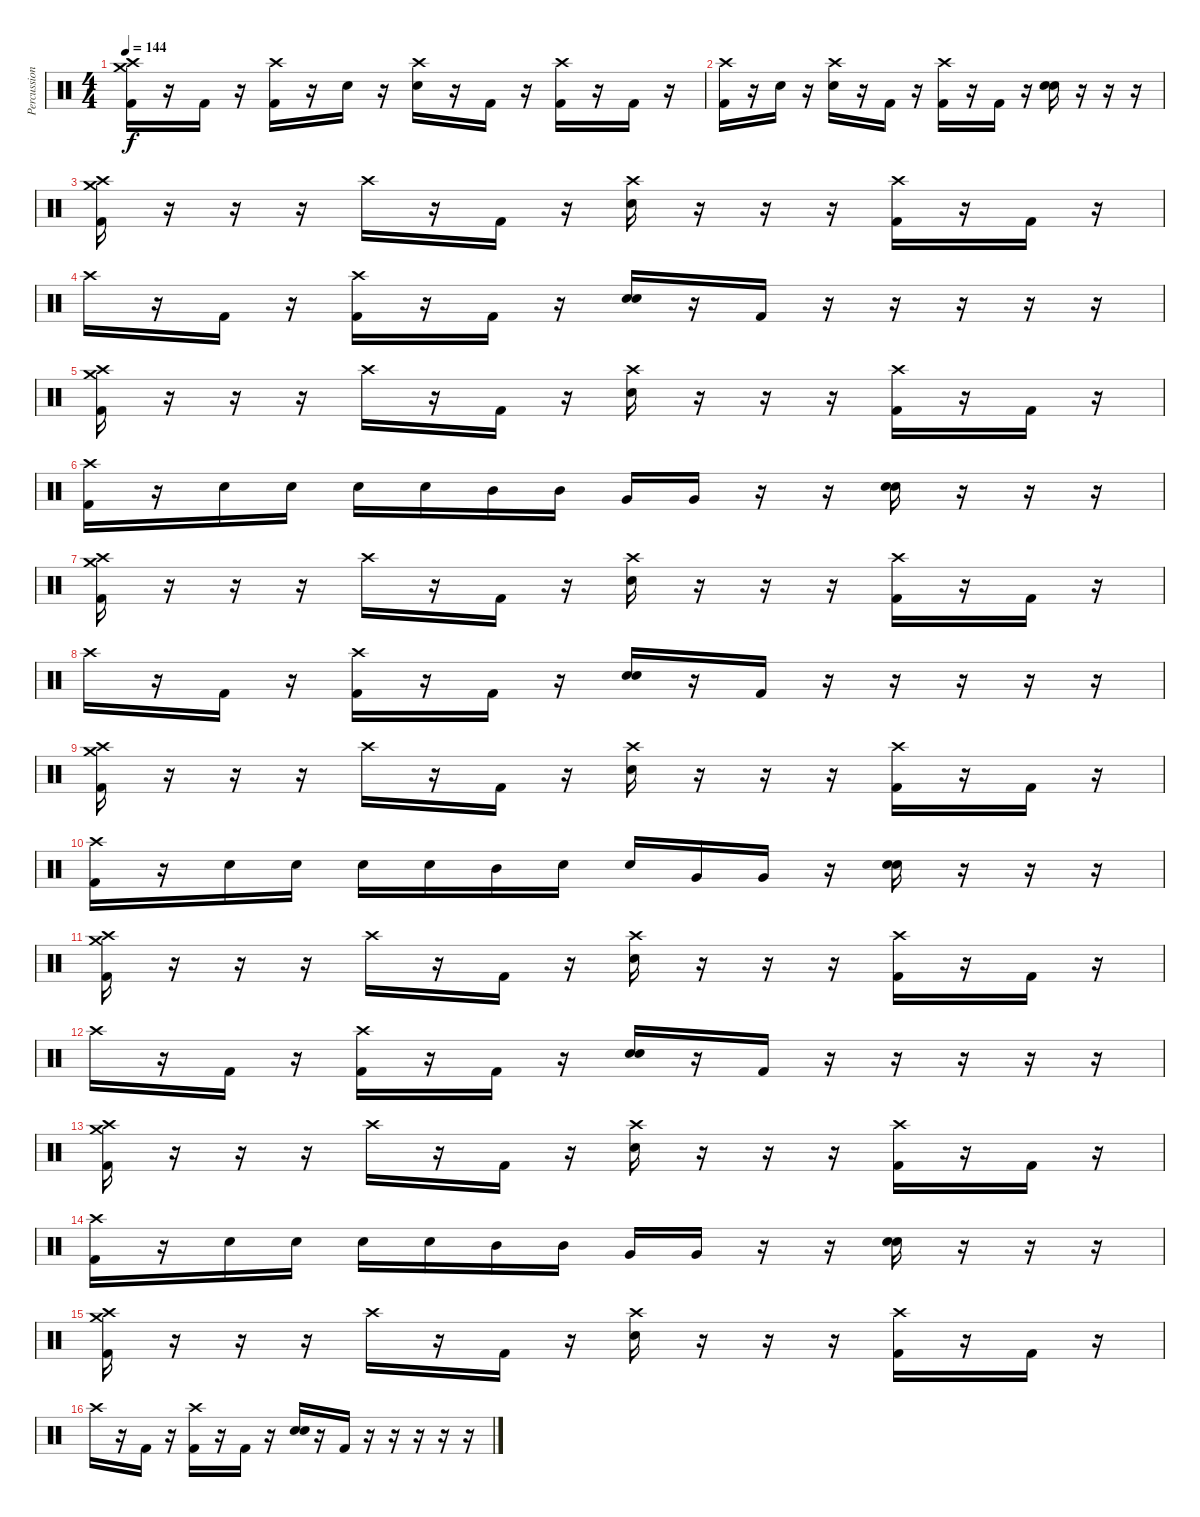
\track ("Percussion" "Percussion") {instrument percussion}
\staff {score}
\articulation defaults
\ts (4 4)
\tempo 144
\clef neutral
\ks c
("Crash medium (hit)" "Crash high (hit)" "Kick (hit) 2").16{dy f} r.16 "Kick (hit) 2".16 r.16 ("Crash high (hit)" "Kick (hit) 2").16 r.16 "Electric Snare (hit)".16 r.16 ("Crash high (hit)" "Electric Snare (hit)").16 r.16 "Kick (hit) 2".16 r.16 ("Crash high (hit)" "Kick (hit) 2").16 r.16 "Kick (hit) 2".16 r.16 |
("Crash high (hit)" "Kick (hit) 2").16 r.16 "Electric Snare (hit)".16 r.16 ("Crash high (hit)" "Electric Snare (hit)").16 r.16 "Kick (hit) 2".16 r.16 ("Crash high (hit)" "Kick (hit) 2").16 r.16 "Kick (hit) 2".16 r.16 ("Electric Snare (hit)" "Electric Snare (hit)").16{bd 480} r.16 r.16 r.16 |
("Crash medium (hit)" "Crash high (hit)" "Kick (hit) 2").16 r.16 r.16 r.16 "Crash high (hit)".16 r.16 "Kick (hit) 2".16 r.16 ("Crash high (hit)" "Electric Snare (hit)").16 r.16 r.16 r.16 ("Crash high (hit)" "Kick (hit) 2").16 r.16 "Kick (hit) 2".16 r.16 |
"Crash high (hit)".16 r.16 "Kick (hit) 2".16 r.16 ("Crash high (hit)" "Kick (hit) 2").16 r.16 "Kick (hit) 2".16 r.16 ("Electric Snare (hit)" "Electric Snare (hit)").16{bd 480} r.16 "Kick (hit) 2".16 r.16 r.16 r.16 r.16 r.16 |
("Crash medium (hit)" "Crash high (hit)" "Kick (hit) 2").16 r.16 r.16 r.16 "Crash high (hit)".16 r.16 "Kick (hit) 2".16 r.16 ("Crash high (hit)" "Electric Snare (hit)").16 r.16 r.16 r.16 ("Crash high (hit)" "Kick (hit) 2").16 r.16 "Kick (hit) 2".16 r.16 |
("Crash high (hit)" "Kick (hit) 2").16 r.16 "Electric Snare (hit)".16 "Electric Snare (hit)".16 "Electric Snare (hit)".16 "Electric Snare (hit)".16 "Mid Tom (hit)".16 "Mid Tom (hit)".16 "Very Low Tom (hit)".16 "Very Low Tom (hit)".16 r.16 r.16 ("Electric Snare (hit)" "Electric Snare (hit)").16{bd 480} r.16 r.16 r.16 |
("Crash medium (hit)" "Crash high (hit)" "Kick (hit) 2").16 r.16 r.16 r.16 "Crash high (hit)".16 r.16 "Kick (hit) 2".16 r.16 ("Crash high (hit)" "Electric Snare (hit)").16 r.16 r.16 r.16 ("Crash high (hit)" "Kick (hit) 2").16 r.16 "Kick (hit) 2".16 r.16 |
"Crash high (hit)".16 r.16 "Kick (hit) 2".16 r.16 ("Crash high (hit)" "Kick (hit) 2").16 r.16 "Kick (hit) 2".16 r.16 ("Electric Snare (hit)" "Electric Snare (hit)").16{bd 480} r.16 "Kick (hit) 2".16 r.16 r.16 r.16 r.16 r.16 |
("Crash medium (hit)" "Crash high (hit)" "Kick (hit) 2").16 r.16 r.16 r.16 "Crash high (hit)".16 r.16 "Kick (hit) 2".16 r.16 ("Crash high (hit)" "Electric Snare (hit)").16 r.16 r.16 r.16 ("Crash high (hit)" "Kick (hit) 2").16 r.16 "Kick (hit) 2".16 r.16 |
("Crash high (hit)" "Kick (hit) 2").16 r.16 "Electric Snare (hit)".16 "Electric Snare (hit)".16 "Electric Snare (hit)".16 "Electric Snare (hit)".16 "Mid Tom (hit)".16 "Electric Snare (hit)".16 "Electric Snare (hit)".16 "Very Low Tom (hit)".16 "Very Low Tom (hit)".16 r.16 ("Electric Snare (hit)" "Electric Snare (hit)").16{bd 480} r.16 r.16 r.16 |
("Crash medium (hit)" "Crash high (hit)" "Kick (hit) 2").16 r.16 r.16 r.16 "Crash high (hit)".16 r.16 "Kick (hit) 2".16 r.16 ("Crash high (hit)" "Electric Snare (hit)").16 r.16 r.16 r.16 ("Crash high (hit)" "Kick (hit) 2").16 r.16 "Kick (hit) 2".16 r.16 |
"Crash high (hit)".16 r.16 "Kick (hit) 2".16 r.16 ("Crash high (hit)" "Kick (hit) 2").16 r.16 "Kick (hit) 2".16 r.16 ("Electric Snare (hit)" "Electric Snare (hit)").16{bd 480} r.16 "Kick (hit) 2".16 r.16 r.16 r.16 r.16 r.16 |
("Crash medium (hit)" "Crash high (hit)" "Kick (hit) 2").16 r.16 r.16 r.16 "Crash high (hit)".16 r.16 "Kick (hit) 2".16 r.16 ("Crash high (hit)" "Electric Snare (hit)").16 r.16 r.16 r.16 ("Crash high (hit)" "Kick (hit) 2").16 r.16 "Kick (hit) 2".16 r.16 |
("Crash high (hit)" "Kick (hit) 2").16 r.16 "Electric Snare (hit)".16 "Electric Snare (hit)".16 "Electric Snare (hit)".16 "Electric Snare (hit)".16 "Mid Tom (hit)".16 "Mid Tom (hit)".16 "Very Low Tom (hit)".16 "Very Low Tom (hit)".16 r.16 r.16 ("Electric Snare (hit)" "Electric Snare (hit)").16{bd 480} r.16 r.16 r.16 |
("Crash medium (hit)" "Crash high (hit)" "Kick (hit) 2").16 r.16 r.16 r.16 "Crash high (hit)".16 r.16 "Kick (hit) 2".16 r.16 ("Crash high (hit)" "Electric Snare (hit)").16 r.16 r.16 r.16 ("Crash high (hit)" "Kick (hit) 2").16 r.16 "Kick (hit) 2".16 r.16 |
"Crash high (hit)".16 r.16 "Kick (hit) 2".16 r.16 ("Crash high (hit)" "Kick (hit) 2").16 r.16 "Kick (hit) 2".16 r.16 ("Electric Snare (hit)" "Electric Snare (hit)").16{bd 480} r.16 "Kick (hit) 2".16 r.16 r.16 r.16 r.16 r.16
